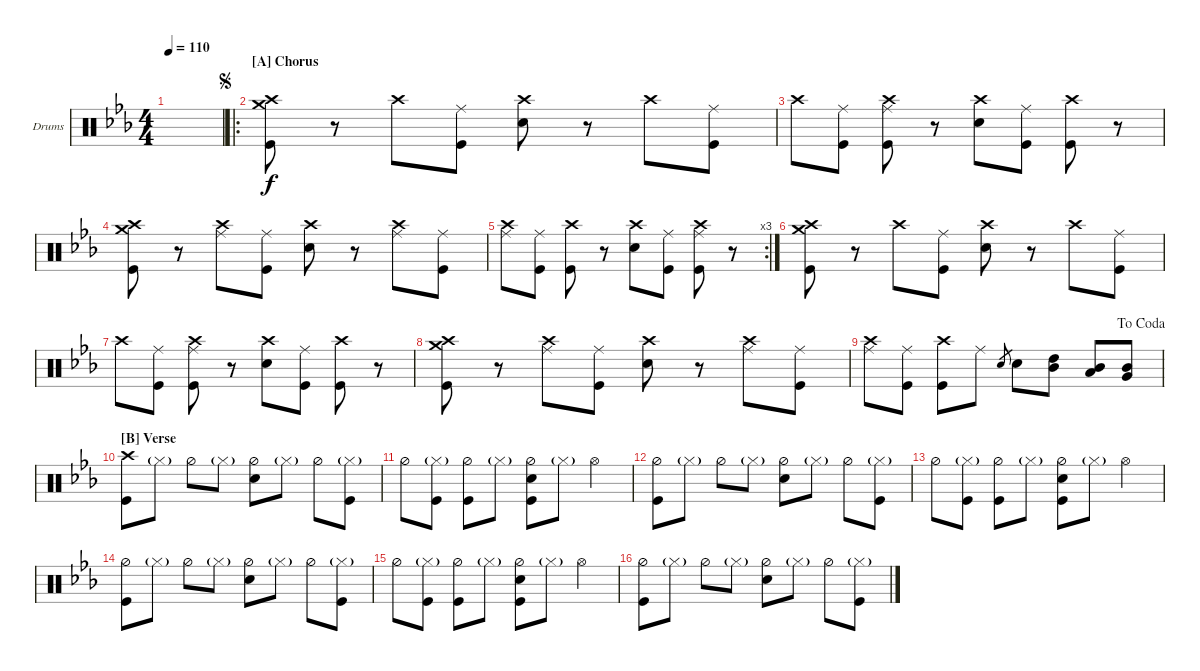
\defaultSystemsLayout 4
\bracketExtendMode groupsimilarinstruments
\firstSystemTrackNameOrientation horizontal
\otherSystemsTrackNameOrientation horizontal
\track ("Drumkit" "Drums") {instrument percussion}
\staff {score}
\articulation defaults
\ts (4 4)
\tempo 110
\clef neutral
\scale
0.448889
\ks cminor
|
\ro
\section ("A" "Chorus")
\jump segno
\scale
0.302222 ("Kick (hit)" "Crash medium (hit)" "Crash high (hit)").8 r.8 "Crash high (hit)".8 ("Kick (hit)" "Ride (middle)").8 ("Snare (hit) 2" "Crash high (hit)").8 r.8 "Crash high (hit)".8 ("Kick (hit)" "Ride (middle)").8 |
\scale
0.248889 "Crash high (hit)".8 ("Kick (hit)" "Ride (middle)").8 ("Kick (hit)" "Crash high (hit)" "Ride (middle)").8 r.8 ("Snare (hit) 2" "Crash high (hit)").8 ("Kick (hit)" "Ride (middle)").8 ("Kick (hit)" "Crash high (hit)").8 r.8 |
\scale
0.321839 ("Kick (hit)" "Crash high (hit)" "Crash medium (hit)").8 r.8 ("Crash high (hit)" "Ride (middle)").8 ("Kick (hit)" "Ride (middle)").8 ("Snare (hit) 2" "Crash high (hit)").8 r.8 ("Crash high (hit)" "Ride (middle)").8 ("Kick (hit)" "Ride (middle)").8 |
\rc 3
\scale
0.356322 ("Crash high (hit)" "Ride (middle)").8 ("Kick (hit)" "Ride (middle)").8 ("Kick (hit)" "Crash high (hit)").8 r.8 ("Snare (hit) 2" "Crash high (hit)").8 ("Kick (hit)" "Ride (middle)").8 ("Kick (hit)" "Crash high (hit)" "Ride (middle)").8 r.8 |
\scale
0.321839 ("Kick (hit)" "Crash medium (hit)" "Crash high (hit)").8 r.8 "Crash high (hit)".8 ("Kick (hit)" "Ride (middle)").8 ("Snare (hit) 2" "Crash high (hit)").8 r.8 "Crash high (hit)".8 ("Kick (hit)" "Ride (middle)").8 |
\scale
0.333333 "Crash high (hit)".8 ("Kick (hit)" "Ride (middle)").8 ("Kick (hit)" "Crash high (hit)" "Ride (middle)").8 r.8 ("Snare (hit) 2" "Crash high (hit)").8 ("Kick (hit)" "Ride (middle)").8 ("Kick (hit)" "Crash high (hit)").8 r.8 |
\scale
0.333333 ("Kick (hit)" "Crash high (hit)" "Crash medium (hit)").8 r.8 ("Crash high (hit)" "Ride (middle)").8 ("Kick (hit)" "Ride (middle)").8 ("Snare (hit) 2" "Crash high (hit)").8 r.8 ("Crash high (hit)" "Ride (middle)").8 ("Kick (hit)" "Ride (middle)").8 |
\jump dacoda
\scale
0.333333 ("Crash high (hit)" "Ride (middle)").8 ("Kick (hit)" "Ride (middle)").8 ("Kick (hit)" "Crash high (hit)").8 "Ride (middle)".8 "Snare (hit) 2".8{gr} "Snare (hit) 2".8 ("High Tom (hit)" "Mid Tom (hit)").8 ("Mid Tom (hit)" "Low Tom (hit)").8 ("Mid Tom (hit)" "Very Low Tom (hit)").8 |
\section ("B" "Verse")
\scale
0.333333 ("Crash high (hit)" "Kick (hit)").8 "Hi-Hat (closed)"{g}.8 "Hi-Hat (half)".8 "Hi-Hat (closed)"{g}.8 ("Hi-Hat (half)" "Snare (hit) 2").8 "Hi-Hat (closed)"{g}.8 "Hi-Hat (half)".8 ("Hi-Hat (closed)"{g} "Kick (hit)").8 |
\scale
0.333333 "Hi-Hat (half)".8 ("Hi-Hat (closed)"{g} "Kick (hit)").8 ("Hi-Hat (half)" "Kick (hit)").8 "Hi-Hat (closed)"{g}.8 ("Hi-Hat (half)" "Snare (hit) 2" "Kick (hit)").8 "Hi-Hat (closed)"{g}.8 "Hi-Hat (open)".4 |
\scale
0.333333 ("Kick (hit)" "Hi-Hat (half)").8 "Hi-Hat (closed)"{g}.8 "Hi-Hat (half)".8 "Hi-Hat (closed)"{g}.8 ("Hi-Hat (half)" "Snare (hit) 2").8 "Hi-Hat (closed)"{g}.8 "Hi-Hat (half)".8 ("Hi-Hat (closed)"{g} "Kick (hit)").8 |
\scale
0.333333 "Hi-Hat (half)".8 ("Hi-Hat (closed)"{g} "Kick (hit)").8 ("Hi-Hat (half)" "Kick (hit)").8 "Hi-Hat (closed)"{g}.8 ("Hi-Hat (half)" "Snare (hit) 2" "Kick (hit)").8 "Hi-Hat (closed)"{g}.8 "Hi-Hat (open)".4 |
\scale
0.333333 ("Kick (hit)" "Hi-Hat (half)").8 "Hi-Hat (closed)"{g}.8 "Hi-Hat (half)".8 "Hi-Hat (closed)"{g}.8 ("Hi-Hat (half)" "Snare (hit) 2").8 "Hi-Hat (closed)"{g}.8 "Hi-Hat (half)".8 ("Hi-Hat (closed)"{g} "Kick (hit)").8 |
\scale
0.333333 "Hi-Hat (half)".8 ("Hi-Hat (closed)"{g} "Kick (hit)").8 ("Hi-Hat (half)" "Kick (hit)").8 "Hi-Hat (closed)"{g}.8 ("Hi-Hat (half)" "Snare (hit) 2" "Kick (hit)").8 "Hi-Hat (closed)"{g}.8 "Hi-Hat (open)".4 |
\scale
0.333333 ("Kick (hit)" "Hi-Hat (half)").8 "Hi-Hat (closed)"{g}.8 "Hi-Hat (half)".8 "Hi-Hat (closed)"{g}.8 ("Hi-Hat (half)" "Snare (hit) 2").8 "Hi-Hat (closed)"{g}.8 "Hi-Hat (half)".8 ("Hi-Hat (closed)"{g} "Kick (hit)").8
